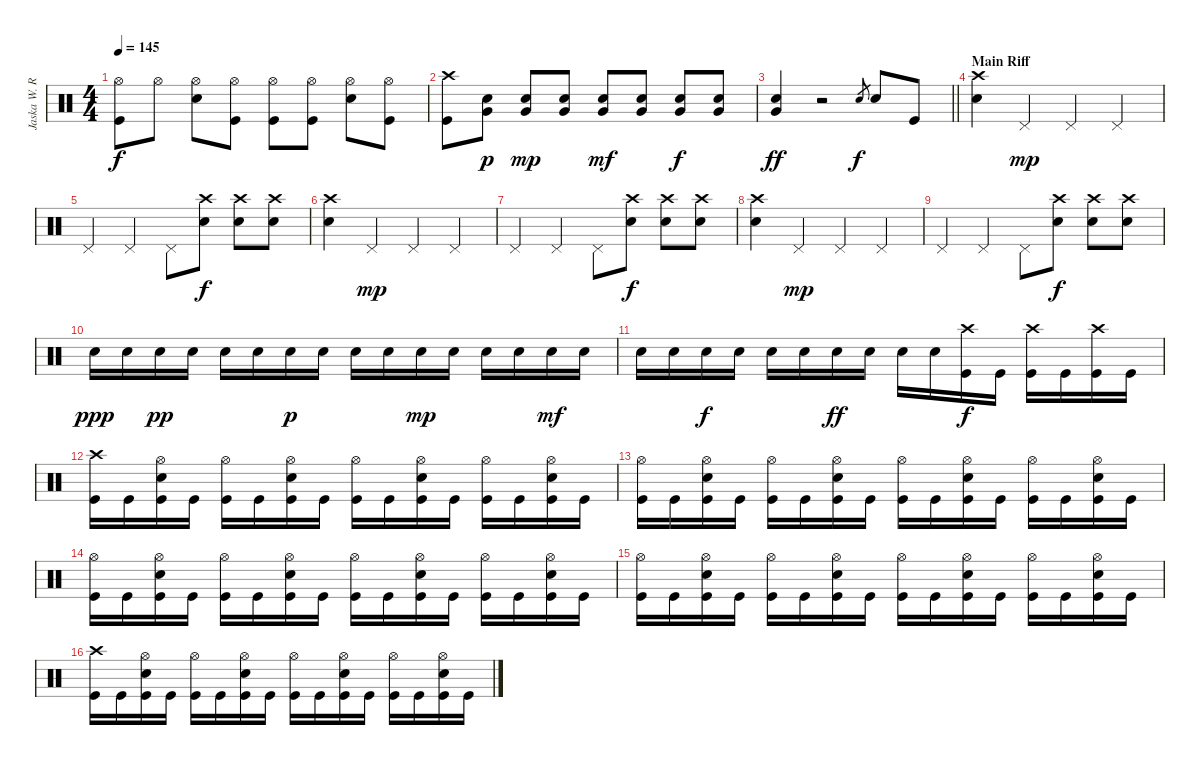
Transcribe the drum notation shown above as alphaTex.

\track ("Jaska W. Raatikainen" "Jaska W. R") {instrument percussion}
\staff {score}
\articulation defaults
\ts (4 4)
\tempo 145
\clef neutral
\ks c
("Hi-Hat (open)" "Kick (hit)").8{dy f} "Hi-Hat (open)".8 ("Hi-Hat (open)" "Snare (hit) 2").8 ("Hi-Hat (open)" "Kick (hit)").8 ("Hi-Hat (open)" "Kick (hit)").8 ("Hi-Hat (open)" "Kick (hit)").8 ("Hi-Hat (open)" "Snare (hit) 2").8 ("Hi-Hat (open)" "Kick (hit)").8 |
("Crash high (hit)" "Kick (hit)").8 ("Snare (hit) 2" "Very Low Tom (hit)").8{dy p} ("Snare (hit) 2" "Very Low Tom (hit)").8{dy mp} ("Snare (hit) 2" "Very Low Tom (hit)").8 ("Snare (hit) 2" "Very Low Tom (hit)").8{dy mf} ("Snare (hit) 2" "Very Low Tom (hit)").8 ("Snare (hit) 2" "Very Low Tom (hit)").8{dy f} ("Snare (hit) 2" "Very Low Tom (hit)").8 |
\barLineRight lightlight
("Snare (hit) 2" "Very Low Tom (hit)").4{dy ff} r.2 "Snare (hit) 2".8{gr dy f} "Snare (hit) 2".8 "Kick (hit)".8 |
\section ("" "Main Riff")
("Crash high (hit)" "Snare (hit) 2").4 "Pedal Hi-Hat (hit)".4{dy mp} "Pedal Hi-Hat (hit)".4 "Pedal Hi-Hat (hit)".4 |
"Pedal Hi-Hat (hit)".4 "Pedal Hi-Hat (hit)".4 "Pedal Hi-Hat (hit)".8 ("Crash high (hit)" "Snare (hit) 2").8{dy f} ("Crash high (hit)" "Snare (hit) 2").8 ("Crash high (hit)" "Snare (hit) 2").8 |
("Crash high (hit)" "Snare (hit) 2").4 "Pedal Hi-Hat (hit)".4{dy mp} "Pedal Hi-Hat (hit)".4 "Pedal Hi-Hat (hit)".4 |
"Pedal Hi-Hat (hit)".4 "Pedal Hi-Hat (hit)".4 "Pedal Hi-Hat (hit)".8 ("Crash high (hit)" "Snare (hit) 2").8{dy f} ("Crash high (hit)" "Snare (hit) 2").8 ("Crash high (hit)" "Snare (hit) 2").8 |
("Crash high (hit)" "Snare (hit) 2").4 "Pedal Hi-Hat (hit)".4{dy mp} "Pedal Hi-Hat (hit)".4 "Pedal Hi-Hat (hit)".4 |
"Pedal Hi-Hat (hit)".4 "Pedal Hi-Hat (hit)".4 "Pedal Hi-Hat (hit)".8 ("Crash high (hit)" "Snare (hit) 2").8{dy f} ("Crash high (hit)" "Snare (hit) 2").8 ("Crash high (hit)" "Snare (hit) 2").8 |
"Snare (hit) 2".16{dy ppp} "Snare (hit) 2".16 "Snare (hit) 2".16{dy pp} "Snare (hit) 2".16 "Snare (hit) 2".16 "Snare (hit) 2".16 "Snare (hit) 2".16{dy p} "Snare (hit) 2".16 "Snare (hit) 2".16 "Snare (hit) 2".16 "Snare (hit) 2".16{dy mp} "Snare (hit) 2".16 "Snare (hit) 2".16 "Snare (hit) 2".16 "Snare (hit) 2".16{dy mf} "Snare (hit) 2".16 |
"Snare (hit) 2".16 "Snare (hit) 2".16 "Snare (hit) 2".16{dy f} "Snare (hit) 2".16 "Snare (hit) 2".16 "Snare (hit) 2".16 "Snare (hit) 2".16{dy ff} "Snare (hit) 2".16 "Snare (hit) 2".16 "Snare (hit) 2".16 ("Crash high (hit)" "Kick (hit)").16{dy f} "Kick (hit)".16 ("Crash high (hit)" "Kick (hit)").16 "Kick (hit)".16 ("Crash high (hit)" "Kick (hit)").16 "Kick (hit)".16 |
("Crash high (hit)" "Kick (hit)").16 "Kick (hit)".16 ("Hi-Hat (open)" "Snare (hit) 2" "Kick (hit)").16 "Kick (hit)".16 ("Hi-Hat (open)" "Kick (hit)").16 "Kick (hit)".16 ("Hi-Hat (open)" "Snare (hit) 2" "Kick (hit)").16 "Kick (hit)".16 ("Hi-Hat (open)" "Kick (hit)").16 "Kick (hit)".16 ("Hi-Hat (open)" "Snare (hit) 2" "Kick (hit)").16 "Kick (hit)".16 ("Hi-Hat (open)" "Kick (hit)").16 "Kick (hit)".16 ("Hi-Hat (open)" "Snare (hit) 2" "Kick (hit)").16 "Kick (hit)".16 |
("Hi-Hat (open)" "Kick (hit)").16 "Kick (hit)".16 ("Hi-Hat (open)" "Snare (hit) 2" "Kick (hit)").16 "Kick (hit)".16 ("Hi-Hat (open)" "Kick (hit)").16 "Kick (hit)".16 ("Hi-Hat (open)" "Snare (hit) 2" "Kick (hit)").16 "Kick (hit)".16 ("Hi-Hat (open)" "Kick (hit)").16 "Kick (hit)".16 ("Hi-Hat (open)" "Snare (hit) 2" "Kick (hit)").16 "Kick (hit)".16 ("Hi-Hat (open)" "Kick (hit)").16 "Kick (hit)".16 ("Hi-Hat (open)" "Snare (hit) 2" "Kick (hit)").16 "Kick (hit)".16 |
("Hi-Hat (open)" "Kick (hit)").16 "Kick (hit)".16 ("Hi-Hat (open)" "Snare (hit) 2" "Kick (hit)").16 "Kick (hit)".16 ("Hi-Hat (open)" "Kick (hit)").16 "Kick (hit)".16 ("Hi-Hat (open)" "Snare (hit) 2" "Kick (hit)").16 "Kick (hit)".16 ("Hi-Hat (open)" "Kick (hit)").16 "Kick (hit)".16 ("Hi-Hat (open)" "Snare (hit) 2" "Kick (hit)").16 "Kick (hit)".16 ("Hi-Hat (open)" "Kick (hit)").16 "Kick (hit)".16 ("Hi-Hat (open)" "Snare (hit) 2" "Kick (hit)").16 "Kick (hit)".16 |
("Hi-Hat (open)" "Kick (hit)").16 "Kick (hit)".16 ("Hi-Hat (open)" "Snare (hit) 2" "Kick (hit)").16 "Kick (hit)".16 ("Hi-Hat (open)" "Kick (hit)").16 "Kick (hit)".16 ("Hi-Hat (open)" "Snare (hit) 2" "Kick (hit)").16 "Kick (hit)".16 ("Hi-Hat (open)" "Kick (hit)").16 "Kick (hit)".16 ("Hi-Hat (open)" "Snare (hit) 2" "Kick (hit)").16 "Kick (hit)".16 ("Hi-Hat (open)" "Kick (hit)").16 "Kick (hit)".16 ("Hi-Hat (open)" "Snare (hit) 2" "Kick (hit)").16 "Kick (hit)".16 |
("Crash high (hit)" "Kick (hit)").16 "Kick (hit)".16 ("Hi-Hat (open)" "Snare (hit) 2" "Kick (hit)").16 "Kick (hit)".16 ("Hi-Hat (open)" "Kick (hit)").16 "Kick (hit)".16 ("Hi-Hat (open)" "Snare (hit) 2" "Kick (hit)").16 "Kick (hit)".16 ("Hi-Hat (open)" "Kick (hit)").16 "Kick (hit)".16 ("Hi-Hat (open)" "Snare (hit) 2" "Kick (hit)").16 "Kick (hit)".16 ("Hi-Hat (open)" "Kick (hit)").16 "Kick (hit)".16 ("Hi-Hat (open)" "Snare (hit) 2" "Kick (hit)").16 "Kick (hit)".16
